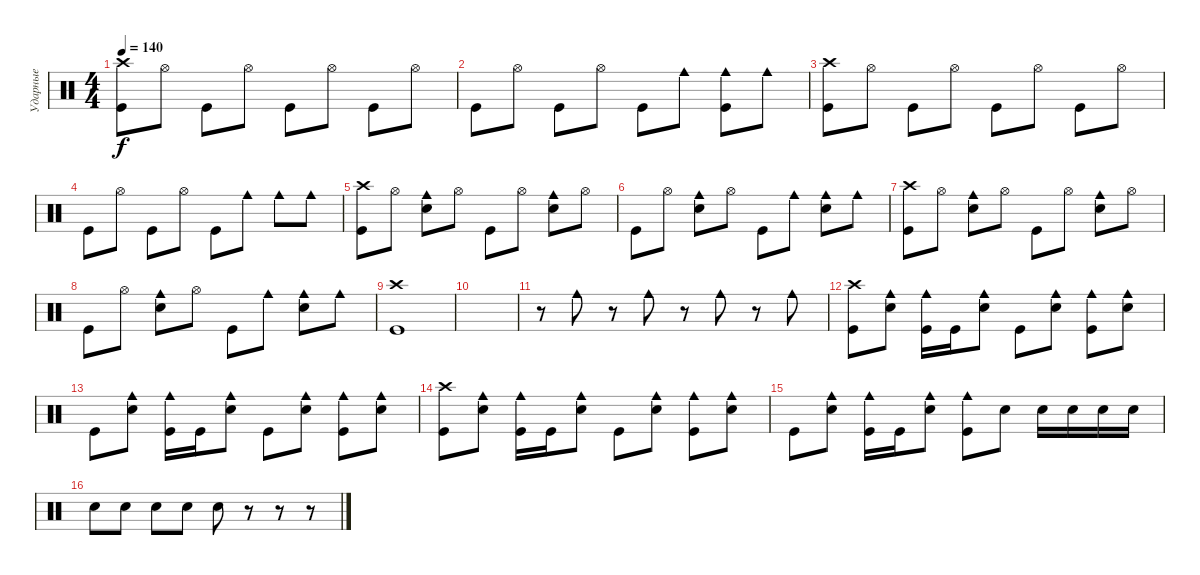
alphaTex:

\track ("Ударные" "Ударные") {instrument percussion}
\staff {score}
\articulation defaults
\ts (4 4)
\tempo 140
\clef neutral
\ks c
("Crash high (hit)" "Kick (hit)").8{dy f} "Hi-Hat (open)".8 "Kick (hit)".8 "Hi-Hat (open)".8 "Kick (hit)".8 "Hi-Hat (open)".8 "Kick (hit)".8 "Hi-Hat (open)".8 |
"Kick (hit)".8 "Hi-Hat (open)".8 "Kick (hit)".8 "Hi-Hat (open)".8 "Kick (hit)".8 "Cowbell medium (hit)".8 ("Cowbell medium (hit)" "Kick (hit)").8 "Cowbell medium (hit)".8 |
("Crash high (hit)" "Kick (hit)").8 "Hi-Hat (open)".8 "Kick (hit)".8 "Hi-Hat (open)".8 "Kick (hit)".8 "Hi-Hat (open)".8 "Kick (hit)".8 "Hi-Hat (open)".8 |
"Kick (hit)".8 "Hi-Hat (open)".8 "Kick (hit)".8 "Hi-Hat (open)".8 "Kick (hit)".8 "Cowbell medium (hit)".8 "Cowbell medium (hit)".8 "Cowbell medium (hit)".8 |
("Crash high (hit)" "Kick (hit)").8 "Hi-Hat (open)".8 ("Cowbell medium (hit)" "Electric Snare (hit)").8 "Hi-Hat (open)".8 "Kick (hit)".8 "Hi-Hat (open)".8 ("Cowbell medium (hit)" "Electric Snare (hit)").8 "Hi-Hat (open)".8 |
"Kick (hit)".8 "Hi-Hat (open)".8 ("Cowbell medium (hit)" "Electric Snare (hit)").8 "Hi-Hat (open)".8 "Kick (hit)".8 "Cowbell medium (hit)".8 ("Electric Snare (hit)" "Cowbell medium (hit)").8 "Cowbell medium (hit)".8 |
("Crash high (hit)" "Kick (hit)").8 "Hi-Hat (open)".8 ("Cowbell medium (hit)" "Electric Snare (hit)").8 "Hi-Hat (open)".8 "Kick (hit)".8 "Hi-Hat (open)".8 ("Cowbell medium (hit)" "Electric Snare (hit)").8 "Hi-Hat (open)".8 |
"Kick (hit)".8 "Hi-Hat (open)".8 ("Cowbell medium (hit)" "Electric Snare (hit)").8 "Hi-Hat (open)".8 "Kick (hit)".8 "Cowbell medium (hit)".8 ("Electric Snare (hit)" "Cowbell medium (hit)").8 "Cowbell medium (hit)".8 |
("Crash high (hit)" "Kick (hit)").1 |
|
r.8 "Cowbell medium (hit)".8 r.8 "Cowbell medium (hit)".8 r.8 "Cowbell medium (hit)".8 r.8 "Cowbell medium (hit)".8 |
("Crash high (hit)" "Kick (hit)").8 ("Cowbell medium (hit)" "Electric Snare (hit)").8 ("Cowbell medium (hit)" "Kick (hit)").16 "Kick (hit)".16 ("Cowbell medium (hit)" "Electric Snare (hit)").8 "Kick (hit)".8 ("Cowbell medium (hit)" "Electric Snare (hit)").8 ("Cowbell medium (hit)" "Kick (hit)").8 ("Cowbell medium (hit)" "Electric Snare (hit)").8 |
"Kick (hit)".8 ("Cowbell medium (hit)" "Electric Snare (hit)").8 ("Cowbell medium (hit)" "Kick (hit)").16 "Kick (hit)".16 ("Cowbell medium (hit)" "Electric Snare (hit)").8 "Kick (hit)".8 ("Cowbell medium (hit)" "Electric Snare (hit)").8 ("Cowbell medium (hit)" "Kick (hit)").8 ("Cowbell medium (hit)" "Electric Snare (hit)").8 |
("Crash high (hit)" "Kick (hit)").8 ("Cowbell medium (hit)" "Electric Snare (hit)").8 ("Cowbell medium (hit)" "Kick (hit)").16 "Kick (hit)".16 ("Cowbell medium (hit)" "Electric Snare (hit)").8 "Kick (hit)".8 ("Cowbell medium (hit)" "Electric Snare (hit)").8 ("Cowbell medium (hit)" "Kick (hit)").8 ("Cowbell medium (hit)" "Electric Snare (hit)").8 |
"Kick (hit)".8 ("Cowbell medium (hit)" "Electric Snare (hit)").8 ("Cowbell medium (hit)" "Kick (hit)").16 "Kick (hit)".16 ("Cowbell medium (hit)" "Electric Snare (hit)").8 ("Cowbell medium (hit)" "Kick (hit)").8 "Electric Snare (hit)".8 "Electric Snare (hit)".16 "Electric Snare (hit)".16 "Electric Snare (hit)".16 "Electric Snare (hit)".16 |
"Electric Snare (hit)".8 "Electric Snare (hit)".8 "Electric Snare (hit)".8 "Electric Snare (hit)".8 "Electric Snare (hit)".8 r.8 r.8 r.8
